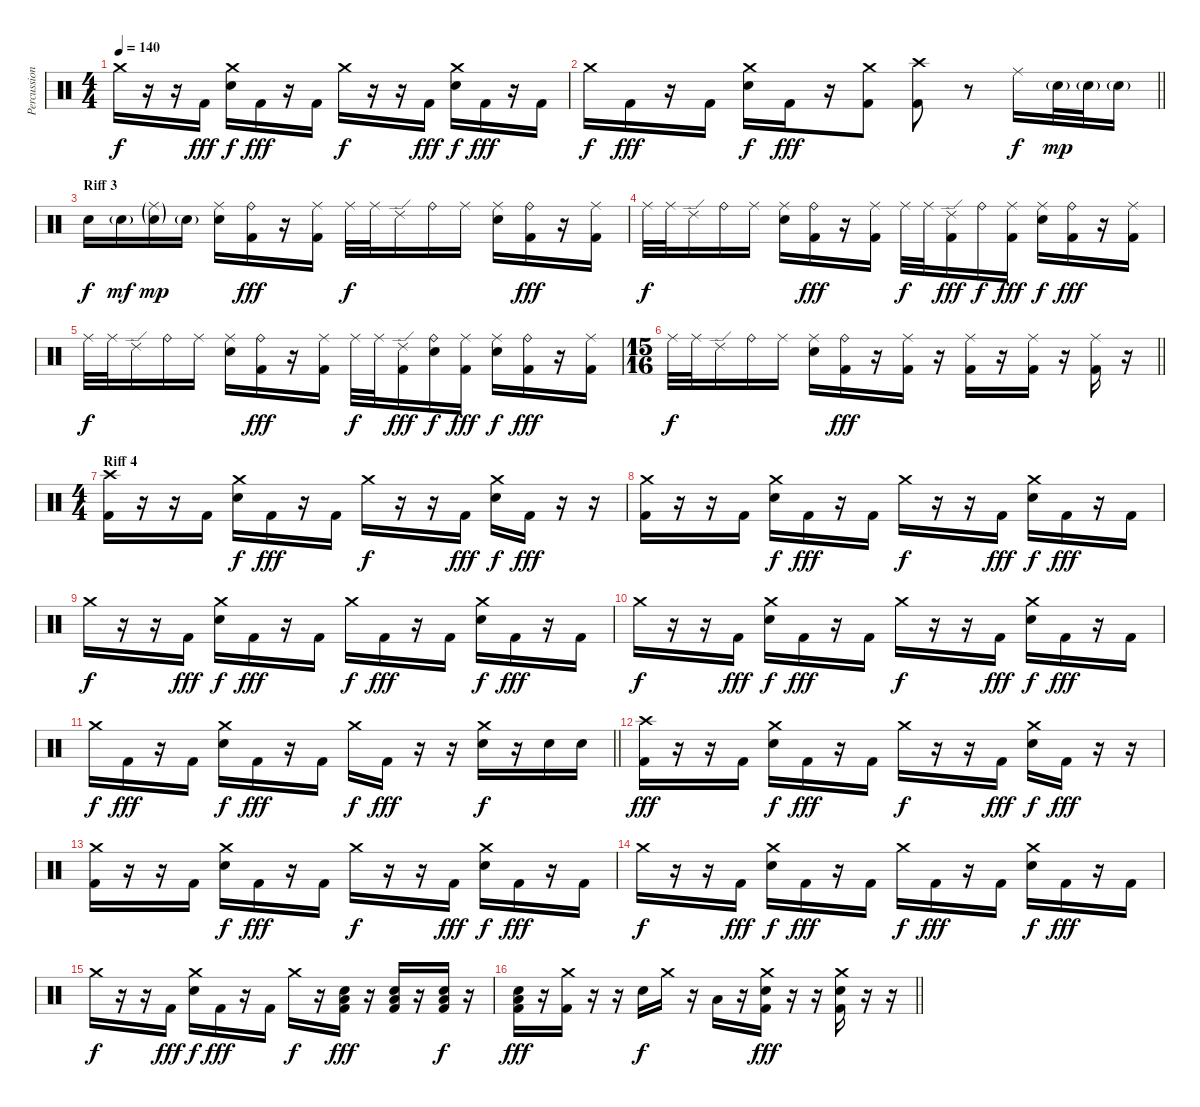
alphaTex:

\track ("Percussion" "Percussion") {instrument percussion}
\staff {score}
\articulation defaults
\ts (4 4)
\tempo 140
\clef neutral
\ks c "Crash medium (hit)".16{dy f}
r.16 r.16 "Kick (hit) 2".16{dy fff} ("Crash medium (hit)" "Electric Snare (hit)").16{dy f} "Kick (hit) 2".16{dy fff} r.16 "Kick (hit) 2".16 "Crash medium (hit)".16{dy f} r.16 r.16 "Kick (hit) 2".16{dy fff} ("Crash medium (hit)" "Electric Snare (hit)").16{dy f} "Kick (hit) 2".16{dy fff} r.16 "Kick (hit) 2".16 |
\barLineRight lightlight "Crash medium (hit)".16{dy f} "Kick (hit) 2".16{dy fff}
r.16 "Kick (hit) 2".16 ("Crash medium (hit)" "Electric Snare (hit)").16{dy f} "Kick (hit) 2".16{dy fff} r.16 ("Crash medium (hit)" "Kick (hit) 2").8 ("Crash high (hit)" "Kick (hit) 2").8 r.8 "Ride (middle)".16{dy f} "Electric Snare (hit)"{g}.32{dy mp} "Electric Snare (hit)"{g}.32 "Electric Snare (hit)"{g}.16 |
\section ("" "Riff 3")
"Electric Snare (hit)".16{dy f} "Electric Snare (hit)"{g}.16{dy mf} ("Ride (middle)"{g} "Electric Snare (hit)"{g}).16{dy mp} "Electric Snare (hit)"{g}.16 ("Ride (middle)" "Electric Snare (hit)").16 ("Ride (bell)" "Kick (hit) 2").16{dy fff} r.16 ("Ride (middle)" "Kick (hit) 2").16 "Ride (middle)".32{dy f} "Ride (middle)".32 "Ride (edge) 2".16 "Ride (bell)".16 "Ride (middle)".16 ("Ride (middle)" "Electric Snare (hit)").16 ("Ride (bell)" "Kick (hit) 2").16{dy fff} r.16 ("Ride (middle)" "Kick (hit) 2").16 |
"Ride (middle)".32{dy f} "Ride (middle)".32 "Ride (edge) 2".16 "Ride (bell)".16 "Ride (middle)".16 ("Ride (middle)" "Electric Snare (hit)").16 ("Ride (bell)" "Kick (hit) 2").16{dy fff} r.16 ("Ride (middle)" "Kick (hit) 2").16 "Ride (middle)".32{dy f} "Ride (middle)".32 ("Ride (edge) 2" "Kick (hit) 2").16{dy fff} "Ride (bell)".16{dy f} ("Ride (middle)" "Kick (hit) 2").16{dy fff} ("Ride (middle)" "Electric Snare (hit)").16{dy f} ("Ride (bell)" "Kick (hit) 2").16{dy fff} r.16 ("Ride (middle)" "Kick (hit) 2").16 |
"Ride (middle)".32{dy f} "Ride (middle)".32 "Ride (edge) 2".16 "Ride (bell)".16 "Ride (middle)".16 ("Ride (middle)" "Electric Snare (hit)").16 ("Ride (bell)" "Kick (hit) 2").16{dy fff} r.16 ("Ride (middle)" "Kick (hit) 2").16 "Ride (middle)".32{dy f} "Ride (middle)".32 ("Ride (edge) 2" "Kick (hit) 2").16{dy fff} ("Ride (bell)" "Electric Snare (hit)").16{dy f} ("Ride (middle)" "Kick (hit) 2").16{dy fff} ("Ride (middle)" "Electric Snare (hit)").16{dy f} ("Ride (bell)" "Kick (hit) 2").16{dy fff} r.16 ("Ride (middle)" "Kick (hit) 2").16 |
\ts (15 16)
\barLineRight lightlight "Ride (middle)".32{dy f} "Ride (middle)".32 "Ride (edge) 2".16 "Ride (bell)".16 "Ride (middle)".16
("Ride (middle)" "Electric Snare (hit)").16 ("Ride (bell)" "Kick (hit) 2").16{dy fff} r.16 ("Ride (middle)" "Kick (hit) 2").16 r.16 ("Ride (middle)" "Kick (hit) 2").16 r.16 ("Ride (middle)" "Kick (hit) 2").16 r.16 ("Ride (middle)" "Kick (hit) 2").16 r.16 |
\ts (4 4)
\section ("" "Riff 4")
("Crash high (hit)" "Kick (hit) 2").16 r.16 r.16 "Kick (hit) 2".16 ("Crash medium (hit)" "Electric Snare (hit)").16{dy f} "Kick (hit) 2".16{dy fff} r.16 "Kick (hit) 2".16 "Crash medium (hit)".16{dy f} r.16 r.16 "Kick (hit) 2".16{dy fff} ("Crash medium (hit)" "Electric Snare (hit)").16{dy f} "Kick (hit) 2".16{dy fff} r.16 r.16 |
("Crash medium (hit)" "Kick (hit) 2").16 r.16 r.16 "Kick (hit) 2".16 ("Crash medium (hit)" "Electric Snare (hit)").16{dy f} "Kick (hit) 2".16{dy fff} r.16 "Kick (hit) 2".16 "Crash medium (hit)".16{dy f} r.16 r.16 "Kick (hit) 2".16{dy fff} ("Crash medium (hit)" "Electric Snare (hit)").16{dy f} "Kick (hit) 2".16{dy fff} r.16 "Kick (hit) 2".16 |
"Crash medium (hit)".16{dy f} r.16 r.16 "Kick (hit) 2".16{dy fff} ("Crash medium (hit)" "Electric Snare (hit)").16{dy f} "Kick (hit) 2".16{dy fff} r.16 "Kick (hit) 2".16 "Crash medium (hit)".16{dy f} "Kick (hit) 2".16{dy fff} r.16 "Kick (hit) 2".16 ("Crash medium (hit)" "Electric Snare (hit)").16{dy f} "Kick (hit) 2".16{dy fff} r.16 "Kick (hit) 2".16 |
"Crash medium (hit)".16{dy f} r.16 r.16 "Kick (hit) 2".16{dy fff} ("Crash medium (hit)" "Electric Snare (hit)").16{dy f} "Kick (hit) 2".16{dy fff} r.16 "Kick (hit) 2".16 "Crash medium (hit)".16{dy f} r.16 r.16 "Kick (hit) 2".16{dy fff} ("Crash medium (hit)" "Electric Snare (hit)").16{dy f} "Kick (hit) 2".16{dy fff} r.16 "Kick (hit) 2".16 |
\barLineRight lightlight "Crash medium (hit)".16{dy f} "Kick (hit) 2".16{dy fff}
r.16 "Kick (hit) 2".16 ("Crash medium (hit)" "Electric Snare (hit)").16{dy f} "Kick (hit) 2".16{dy fff} r.16 "Kick (hit) 2".16 "Crash medium (hit)".16{dy f} "Kick (hit) 2".16{dy fff} r.16 r.16 ("Crash medium (hit)" "Electric Snare (hit)").16{dy f} r.16 "Electric Snare (hit)".16 "Electric Snare (hit)".16 |
("Crash high (hit)" "Kick (hit) 2").16{dy fff} r.16 r.16 "Kick (hit) 2".16 ("Crash medium (hit)" "Electric Snare (hit)").16{dy f} "Kick (hit) 2".16{dy fff} r.16 "Kick (hit) 2".16 "Crash medium (hit)".16{dy f} r.16 r.16 "Kick (hit) 2".16{dy fff} ("Crash medium (hit)" "Electric Snare (hit)").16{dy f} "Kick (hit) 2".16{dy fff} r.16 r.16 |
("Crash medium (hit)" "Kick (hit) 2").16 r.16 r.16 "Kick (hit) 2".16 ("Crash medium (hit)" "Electric Snare (hit)").16{dy f} "Kick (hit) 2".16{dy fff} r.16 "Kick (hit) 2".16 "Crash medium (hit)".16{dy f} r.16 r.16 "Kick (hit) 2".16{dy fff} ("Crash medium (hit)" "Electric Snare (hit)").16{dy f} "Kick (hit) 2".16{dy fff} r.16 "Kick (hit) 2".16 |
"Crash medium (hit)".16{dy f} r.16 r.16 "Kick (hit) 2".16{dy fff} ("Crash medium (hit)" "Electric Snare (hit)").16{dy f} "Kick (hit) 2".16{dy fff} r.16 "Kick (hit) 2".16 "Crash medium (hit)".16{dy f} "Kick (hit) 2".16{dy fff} r.16 "Kick (hit) 2".16 ("Crash medium (hit)" "Electric Snare (hit)").16{dy f} "Kick (hit) 2".16{dy fff} r.16 "Kick (hit) 2".16 |
"Crash medium (hit)".16{dy f} r.16 r.16 "Kick (hit) 2".16{dy fff} ("Crash medium (hit)" "Electric Snare (hit)").16{dy f} "Kick (hit) 2".16{dy fff} r.16 "Kick (hit) 2".16 "Crash medium (hit)".16{dy f} r.16 ("Electric Snare (hit)" "Low Floor Tom (hit)" "Kick (hit) 2").16{dy fff} r.16 ("Electric Snare (hit)" "Low Floor Tom (hit)" "Kick (hit) 2").16 r.16 ("Electric Snare (hit)" "Low Floor Tom (hit)" "Kick (hit) 2").16{dy f} r.16 |
\barLineRight lightlight
("Electric Snare (hit)" "Low Floor Tom (hit)" "Kick (hit) 2").16{dy fff} r.16 ("Crash medium (hit)" "Kick (hit) 2").16 r.16 r.16 "Electric Snare (hit)".16{dy f} "Crash medium (hit)".16 r.16 "Low Floor Tom (hit)".16 r.16 ("Crash medium (hit)" "Electric Snare (hit)" "Kick (hit) 2").16{dy fff} r.16 r.16 ("Crash medium (hit)" "Electric Snare (hit)" "Kick (hit) 2").16 r.16 r.16
